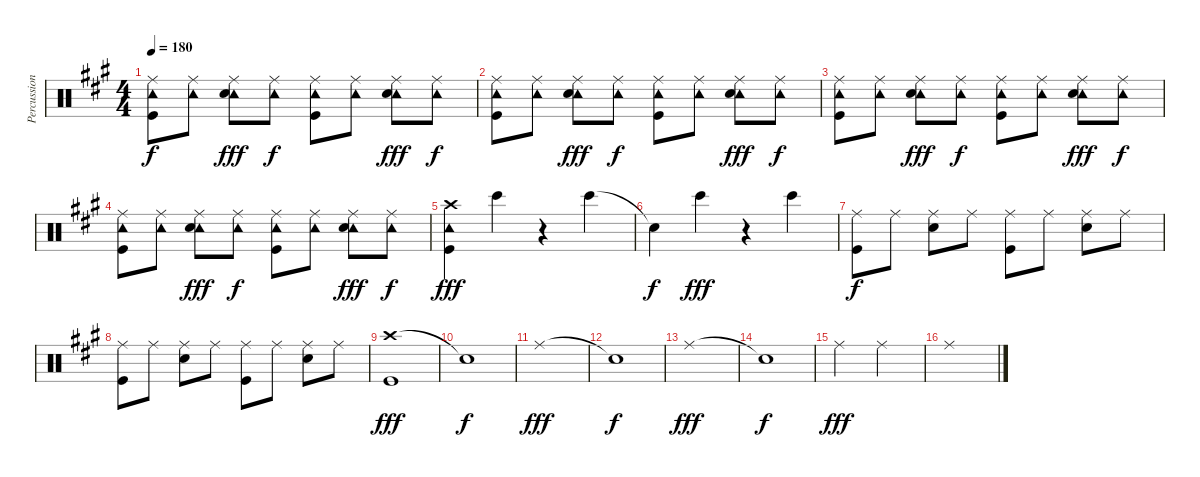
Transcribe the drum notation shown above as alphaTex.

\track ("Percussion" "Percussion") {instrument percussion}
\staff {score}
\articulation defaults
\ts (4 4)
\tempo 180
\clef neutral
\ks a
("Ride (middle)" "Tambourine (hit)" "Kick (hit)").8{dy f} ("Ride (middle)" "Tambourine (hit)").8 ("Ride (middle)" "Tambourine (hit)" "Snare (hit) 2").8{dy fff} ("Ride (middle)" "Tambourine (hit)").8{dy f} ("Ride (middle)" "Tambourine (hit)" "Kick (hit)").8 ("Ride (middle)" "Tambourine (hit)").8 ("Ride (middle)" "Tambourine (hit)" "Snare (hit) 2").8{dy fff} ("Ride (middle)" "Tambourine (hit)").8{dy f} |
("Ride (middle)" "Tambourine (hit)" "Kick (hit)").8 ("Ride (middle)" "Tambourine (hit)").8 ("Ride (middle)" "Tambourine (hit)" "Snare (hit) 2").8{dy fff} ("Ride (middle)" "Tambourine (hit)").8{dy f} ("Ride (middle)" "Tambourine (hit)" "Kick (hit)").8 ("Ride (middle)" "Tambourine (hit)").8 ("Ride (middle)" "Tambourine (hit)" "Snare (hit) 2").8{dy fff} ("Ride (middle)" "Tambourine (hit)").8{dy f} |
("Ride (middle)" "Tambourine (hit)" "Kick (hit)").8 ("Ride (middle)" "Tambourine (hit)").8 ("Ride (middle)" "Tambourine (hit)" "Snare (hit) 2").8{dy fff} ("Ride (middle)" "Tambourine (hit)").8{dy f} ("Ride (middle)" "Tambourine (hit)" "Kick (hit)").8 ("Ride (middle)" "Tambourine (hit)").8 ("Ride (middle)" "Tambourine (hit)" "Snare (hit) 2").8{dy fff} ("Ride (middle)" "Tambourine (hit)").8{dy f} |
("Ride (middle)" "Tambourine (hit)" "Kick (hit)").8 ("Ride (middle)" "Tambourine (hit)").8 ("Ride (middle)" "Tambourine (hit)" "Snare (hit) 2").8{dy fff} ("Ride (middle)" "Tambourine (hit)").8{dy f} ("Ride (middle)" "Tambourine (hit)" "Kick (hit)").8 ("Ride (middle)" "Tambourine (hit)").8 ("Ride (middle)" "Tambourine (hit)" "Snare (hit) 2").8{dy fff} ("Ride (middle)" "Tambourine (hit)").8{dy f} |
("Crash high (hit)" "Tambourine (hit)" "Kick (hit)").4{dy fff} "Bongo High (hit)".4 r.4 "Bongo High (hit)".4 |
"Snare (hit)"{t}.4{dy f} "Bongo High (hit)".4{dy fff} r.4 "Bongo High (hit)".4 |
("Ride (middle)" "Kick (hit)").8{dy f} "Ride (middle)".8 ("Ride (middle)" "Snare (hit) 2").8 "Ride (middle)".8 ("Ride (middle)" "Kick (hit)").8 "Ride (middle)".8 ("Ride (middle)" "Snare (hit) 2").8 "Ride (middle)".8 |
("Ride (middle)" "Kick (hit)").8 "Ride (middle)".8 ("Ride (middle)" "Snare (hit) 2").8 "Ride (middle)".8 ("Ride (middle)" "Kick (hit)").8 "Ride (middle)".8 ("Ride (middle)" "Snare (hit) 2").8 "Ride (middle)".8 |
("Crash high (hit)" "Kick (hit)").1{dy fff} |
"Snare (hit)"{t}.1{dy f} |
"Ride (middle)".1{dy fff} |
"Snare (hit)"{t}.1{dy f} |
"Ride (middle)".1{dy fff} |
"Snare (hit)"{t}.1{dy f} |
"Ride (middle)".2{dy fff} "Ride (middle)".2 |
"Ride (middle)".1
